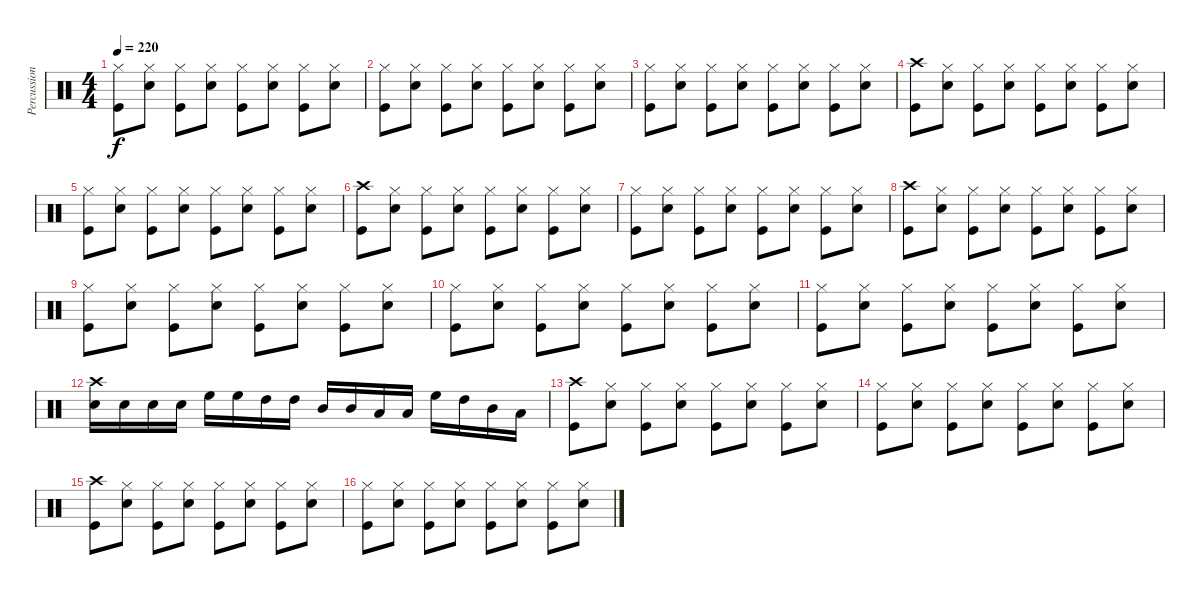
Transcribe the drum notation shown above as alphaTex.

\track ("Percussions" "Percussion") {instrument percussion}
\staff {score}
\articulation defaults
\ts (4 4)
\tempo 220
\clef neutral
\ks c
("Hi-Hat (closed)" "Kick (hit)").8{dy f} ("Hi-Hat (closed)" "Electric Snare (hit)").8 ("Hi-Hat (closed)" "Kick (hit)").8 ("Hi-Hat (closed)" "Electric Snare (hit)").8 ("Hi-Hat (closed)" "Kick (hit)").8 ("Hi-Hat (closed)" "Electric Snare (hit)").8 ("Hi-Hat (closed)" "Kick (hit)").8 ("Hi-Hat (closed)" "Electric Snare (hit)").8 |
("Hi-Hat (closed)" "Kick (hit)").8 ("Hi-Hat (closed)" "Electric Snare (hit)").8 ("Hi-Hat (closed)" "Kick (hit)").8 ("Hi-Hat (closed)" "Electric Snare (hit)").8 ("Hi-Hat (closed)" "Kick (hit)").8 ("Hi-Hat (closed)" "Electric Snare (hit)").8 ("Hi-Hat (closed)" "Kick (hit)").8 ("Hi-Hat (closed)" "Electric Snare (hit)").8 |
("Hi-Hat (closed)" "Kick (hit)").8 ("Hi-Hat (closed)" "Electric Snare (hit)").8 ("Hi-Hat (closed)" "Kick (hit)").8 ("Hi-Hat (closed)" "Electric Snare (hit)").8 ("Hi-Hat (closed)" "Kick (hit)").8 ("Hi-Hat (closed)" "Electric Snare (hit)").8 ("Hi-Hat (closed)" "Kick (hit)").8 ("Hi-Hat (closed)" "Electric Snare (hit)").8 |
("Crash high (hit)" "Kick (hit)").8 ("Hi-Hat (closed)" "Electric Snare (hit)").8 ("Hi-Hat (closed)" "Kick (hit)").8 ("Hi-Hat (closed)" "Electric Snare (hit)").8 ("Hi-Hat (closed)" "Kick (hit)").8 ("Hi-Hat (closed)" "Electric Snare (hit)").8 ("Hi-Hat (closed)" "Kick (hit)").8 ("Hi-Hat (closed)" "Electric Snare (hit)").8 |
("Hi-Hat (closed)" "Kick (hit)").8 ("Hi-Hat (closed)" "Electric Snare (hit)").8 ("Hi-Hat (closed)" "Kick (hit)").8 ("Hi-Hat (closed)" "Electric Snare (hit)").8 ("Hi-Hat (closed)" "Kick (hit)").8 ("Hi-Hat (closed)" "Electric Snare (hit)").8 ("Hi-Hat (closed)" "Kick (hit)").8 ("Hi-Hat (closed)" "Electric Snare (hit)").8 |
("Crash high (hit)" "Kick (hit)").8 ("Hi-Hat (closed)" "Electric Snare (hit)").8 ("Hi-Hat (closed)" "Kick (hit)").8 ("Hi-Hat (closed)" "Electric Snare (hit)").8 ("Hi-Hat (closed)" "Kick (hit)").8 ("Hi-Hat (closed)" "Electric Snare (hit)").8 ("Hi-Hat (closed)" "Kick (hit)").8 ("Hi-Hat (closed)" "Electric Snare (hit)").8 |
("Hi-Hat (closed)" "Kick (hit)").8 ("Hi-Hat (closed)" "Electric Snare (hit)").8 ("Hi-Hat (closed)" "Kick (hit)").8 ("Hi-Hat (closed)" "Electric Snare (hit)").8 ("Hi-Hat (closed)" "Kick (hit)").8 ("Hi-Hat (closed)" "Electric Snare (hit)").8 ("Hi-Hat (closed)" "Kick (hit)").8 ("Hi-Hat (closed)" "Electric Snare (hit)").8 |
("Crash high (hit)" "Kick (hit)").8 ("Hi-Hat (closed)" "Electric Snare (hit)").8 ("Hi-Hat (closed)" "Kick (hit)").8 ("Hi-Hat (closed)" "Electric Snare (hit)").8 ("Hi-Hat (closed)" "Kick (hit)").8 ("Hi-Hat (closed)" "Electric Snare (hit)").8 ("Hi-Hat (closed)" "Kick (hit)").8 ("Hi-Hat (closed)" "Electric Snare (hit)").8 |
("Hi-Hat (closed)" "Kick (hit)").8 ("Hi-Hat (closed)" "Electric Snare (hit)").8 ("Hi-Hat (closed)" "Kick (hit)").8 ("Hi-Hat (closed)" "Electric Snare (hit)").8 ("Hi-Hat (closed)" "Kick (hit)").8 ("Hi-Hat (closed)" "Electric Snare (hit)").8 ("Hi-Hat (closed)" "Kick (hit)").8 ("Hi-Hat (closed)" "Electric Snare (hit)").8 |
("Hi-Hat (closed)" "Kick (hit)").8 ("Hi-Hat (closed)" "Electric Snare (hit)").8 ("Hi-Hat (closed)" "Kick (hit)").8 ("Hi-Hat (closed)" "Electric Snare (hit)").8 ("Hi-Hat (closed)" "Kick (hit)").8 ("Hi-Hat (closed)" "Electric Snare (hit)").8 ("Hi-Hat (closed)" "Kick (hit)").8 ("Hi-Hat (closed)" "Electric Snare (hit)").8 |
("Hi-Hat (closed)" "Kick (hit)").8 ("Hi-Hat (closed)" "Electric Snare (hit)").8 ("Hi-Hat (closed)" "Kick (hit)").8 ("Hi-Hat (closed)" "Electric Snare (hit)").8 ("Hi-Hat (closed)" "Kick (hit)").8 ("Hi-Hat (closed)" "Electric Snare (hit)").8 ("Hi-Hat (closed)" "Kick (hit)").8 ("Hi-Hat (closed)" "Electric Snare (hit)").8 |
("Crash high (hit)" "Electric Snare (hit)").16 "Electric Snare (hit)".16 "Electric Snare (hit)".16 "Electric Snare (hit)".16 "High Floor Tom (hit)".16 "High Floor Tom (hit)".16 "High Tom (hit)".16 "High Tom (hit)".16 "Mid Tom (hit)".16 "Mid Tom (hit)".16 "Low Tom (hit)".16 "Low Tom (hit)".16 "High Floor Tom (hit)".16 "High Tom (hit)".16 "Mid Tom (hit)".16 "Low Tom (hit)".16 |
("Crash high (hit)" "Kick (hit)").8 ("Hi-Hat (closed)" "Electric Snare (hit)").8 ("Hi-Hat (closed)" "Kick (hit)").8 ("Hi-Hat (closed)" "Electric Snare (hit)").8 ("Hi-Hat (closed)" "Kick (hit)").8 ("Hi-Hat (closed)" "Electric Snare (hit)").8 ("Hi-Hat (closed)" "Kick (hit)").8 ("Hi-Hat (closed)" "Electric Snare (hit)").8 |
("Hi-Hat (closed)" "Kick (hit)").8 ("Hi-Hat (closed)" "Electric Snare (hit)").8 ("Hi-Hat (closed)" "Kick (hit)").8 ("Hi-Hat (closed)" "Electric Snare (hit)").8 ("Hi-Hat (closed)" "Kick (hit)").8 ("Hi-Hat (closed)" "Electric Snare (hit)").8 ("Hi-Hat (closed)" "Kick (hit)").8 ("Hi-Hat (closed)" "Electric Snare (hit)").8 |
("Crash high (hit)" "Kick (hit)").8 ("Hi-Hat (closed)" "Electric Snare (hit)").8 ("Hi-Hat (closed)" "Kick (hit)").8 ("Hi-Hat (closed)" "Electric Snare (hit)").8 ("Hi-Hat (closed)" "Kick (hit)").8 ("Hi-Hat (closed)" "Electric Snare (hit)").8 ("Hi-Hat (closed)" "Kick (hit)").8 ("Hi-Hat (closed)" "Electric Snare (hit)").8 |
("Hi-Hat (closed)" "Kick (hit)").8 ("Hi-Hat (closed)" "Electric Snare (hit)").8 ("Hi-Hat (closed)" "Kick (hit)").8 ("Hi-Hat (closed)" "Electric Snare (hit)").8 ("Hi-Hat (closed)" "Kick (hit)").8 ("Hi-Hat (closed)" "Electric Snare (hit)").8 ("Hi-Hat (closed)" "Kick (hit)").8 ("Hi-Hat (closed)" "Electric Snare (hit)").8
